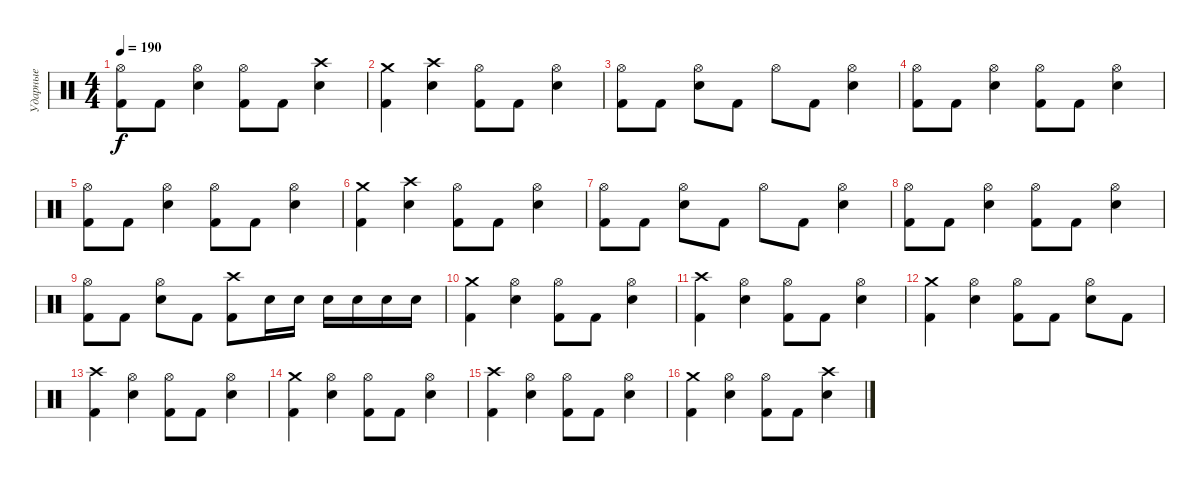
\track ("Ударные" "Ударные") {instrument percussion}
\staff {score}
\articulation defaults
\ts (4 4)
\tempo 190
\clef neutral
\ks c
("Hi-Hat (open)" "Kick (hit) 2").8{dy f} "Kick (hit) 2".8 ("Hi-Hat (open)" "Snare (hit) 2").4 ("Hi-Hat (open)" "Kick (hit) 2").8 "Kick (hit) 2".8 ("Crash high (hit)" "Snare (hit) 2").4 |
("Crash medium (hit)" "Kick (hit) 2").4 ("Crash high (hit)" "Snare (hit) 2").4 ("Hi-Hat (open)" "Kick (hit) 2").8 "Kick (hit) 2".8 ("Hi-Hat (open)" "Snare (hit) 2").4 |
("Hi-Hat (open)" "Kick (hit) 2").8 "Kick (hit) 2".8 ("Hi-Hat (open)" "Snare (hit) 2").8 "Kick (hit) 2".8 "Hi-Hat (open)".8 "Kick (hit) 2".8 ("Hi-Hat (open)" "Snare (hit) 2").4 |
("Hi-Hat (open)" "Kick (hit) 2").8 "Kick (hit) 2".8 ("Hi-Hat (open)" "Snare (hit) 2").4 ("Hi-Hat (open)" "Kick (hit) 2").8 "Kick (hit) 2".8 ("Hi-Hat (open)" "Snare (hit) 2").4 |
("Hi-Hat (open)" "Kick (hit) 2").8 "Kick (hit) 2".8 ("Hi-Hat (open)" "Snare (hit) 2").4 ("Hi-Hat (open)" "Kick (hit) 2").8 "Kick (hit) 2".8 ("Hi-Hat (open)" "Snare (hit) 2").4 |
("Crash medium (hit)" "Kick (hit) 2").4 ("Crash high (hit)" "Snare (hit) 2").4 ("Hi-Hat (open)" "Kick (hit) 2").8 "Kick (hit) 2".8 ("Hi-Hat (open)" "Snare (hit) 2").4 |
("Hi-Hat (open)" "Kick (hit) 2").8 "Kick (hit) 2".8 ("Hi-Hat (open)" "Snare (hit) 2").8 "Kick (hit) 2".8 "Hi-Hat (open)".8 "Kick (hit) 2".8 ("Hi-Hat (open)" "Snare (hit) 2").4 |
("Hi-Hat (open)" "Kick (hit) 2").8 "Kick (hit) 2".8 ("Hi-Hat (open)" "Snare (hit) 2").4 ("Hi-Hat (open)" "Kick (hit) 2").8 "Kick (hit) 2".8 ("Hi-Hat (open)" "Snare (hit) 2").4 |
("Hi-Hat (open)" "Kick (hit) 2").8 "Kick (hit) 2".8 ("Hi-Hat (open)" "Snare (hit) 2").8 "Kick (hit) 2".8 ("Crash high (hit)" "Kick (hit) 2").8 "Snare (hit) 2".16 "Snare (hit) 2".16 "Snare (hit) 2".16 "Snare (hit) 2".16 "Snare (hit) 2".16 "Snare (hit) 2".16 |
("Crash medium (hit)" "Kick (hit) 2").4 ("Hi-Hat (open)" "Snare (hit) 2").4 ("Hi-Hat (open)" "Kick (hit) 2").8 "Kick (hit) 2".8 ("Hi-Hat (open)" "Snare (hit) 2").4 |
("Crash high (hit)" "Kick (hit) 2").4 ("Hi-Hat (open)" "Snare (hit) 2").4 ("Hi-Hat (open)" "Kick (hit) 2").8 "Kick (hit) 2".8 ("Hi-Hat (open)" "Snare (hit) 2").4 |
("Crash medium (hit)" "Kick (hit) 2").4 ("Hi-Hat (open)" "Snare (hit) 2").4 ("Hi-Hat (open)" "Kick (hit) 2").8 "Kick (hit) 2".8 ("Hi-Hat (open)" "Snare (hit) 2").8 "Kick (hit) 2".8 |
("Crash high (hit)" "Kick (hit) 2").4 ("Hi-Hat (open)" "Snare (hit) 2").4 ("Hi-Hat (open)" "Kick (hit) 2").8 "Kick (hit) 2".8 ("Hi-Hat (open)" "Snare (hit) 2").4 |
("Crash medium (hit)" "Kick (hit) 2").4 ("Hi-Hat (open)" "Snare (hit) 2").4 ("Hi-Hat (open)" "Kick (hit) 2").8 "Kick (hit) 2".8 ("Hi-Hat (open)" "Snare (hit) 2").4 |
("Crash high (hit)" "Kick (hit) 2").4 ("Hi-Hat (open)" "Snare (hit) 2").4 ("Hi-Hat (open)" "Kick (hit) 2").8 "Kick (hit) 2".8 ("Hi-Hat (open)" "Snare (hit) 2").4 |
("Crash medium (hit)" "Kick (hit) 2").4 ("Hi-Hat (open)" "Snare (hit) 2").4 ("Hi-Hat (open)" "Kick (hit) 2").8 "Kick (hit) 2".8 ("Crash high (hit)" "Snare (hit) 2").4
